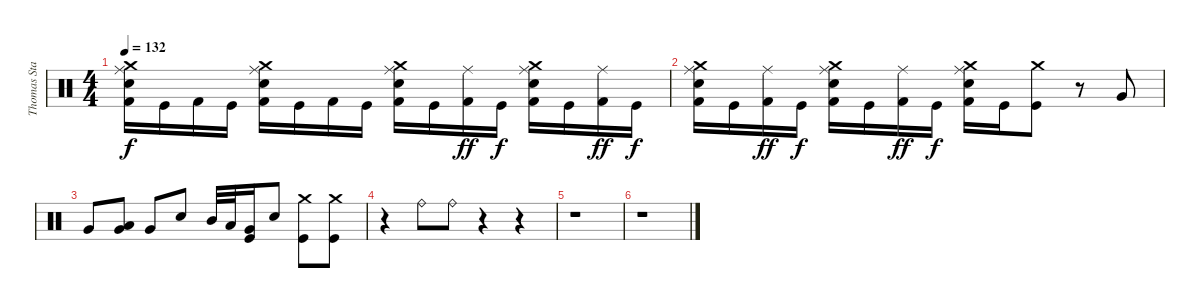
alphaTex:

\track ("Thomas Stauch" "Thomas Sta") {instrument percussion}
\staff {score}
\articulation defaults
\ts (4 4)
\tempo 132
\clef neutral
\ks c
("Crash medium (hit)" "Ride (middle)" "Electric Snare (hit)" "Kick (hit) 2").16{dy f} "Kick (hit)".16 "Kick (hit) 2".16 "Kick (hit)".16 ("Crash medium (hit)" "Ride (middle)" "Electric Snare (hit)" "Kick (hit) 2").16 "Kick (hit)".16 "Kick (hit) 2".16 "Kick (hit)".16 ("Crash medium (hit)" "Ride (middle)" "Electric Snare (hit)" "Kick (hit) 2").16 "Kick (hit)".16 ("Ride (middle)" "Kick (hit) 2").16{dy ff} "Kick (hit)".16{dy f} ("Crash medium (hit)" "Ride (middle)" "Electric Snare (hit)" "Kick (hit) 2").16 "Kick (hit)".16 ("Ride (middle)" "Kick (hit) 2").16{dy ff} "Kick (hit)".16{dy f} |
("Crash medium (hit)" "Ride (middle)" "Electric Snare (hit)" "Kick (hit) 2").16 "Kick (hit)".16 ("Ride (middle)" "Kick (hit) 2").16{dy ff} "Kick (hit)".16{dy f} ("Crash medium (hit)" "Ride (middle)" "Electric Snare (hit)" "Kick (hit) 2").16 "Kick (hit)".16 ("Ride (middle)" "Kick (hit) 2").16{dy ff} "Kick (hit)".16{dy f} ("Crash medium (hit)" "Ride (middle)" "Electric Snare (hit)" "Kick (hit) 2").16 "Kick (hit)".16 ("Crash medium (hit)" "Kick (hit)").8 r.8 "Very Low Tom (hit)".8 |
"Very Low Tom (hit)".8 ("Very Low Tom (hit)" "Low Tom (hit)").8 "Very Low Tom (hit)".8 "Electric Snare (hit)".8 "Mid Tom (hit)".32 "Low Tom (hit)".32 ("Very Low Tom (hit)" "Kick (hit)").16 "Electric Snare (hit)".8 ("Crash medium (hit)" "Kick (hit)").8 ("Crash medium (hit)" "Kick (hit)").8 |
r.4 "Ride (bell)".8 "Ride (bell)".8 r.4 r.4 |
r.1 |
r.1
